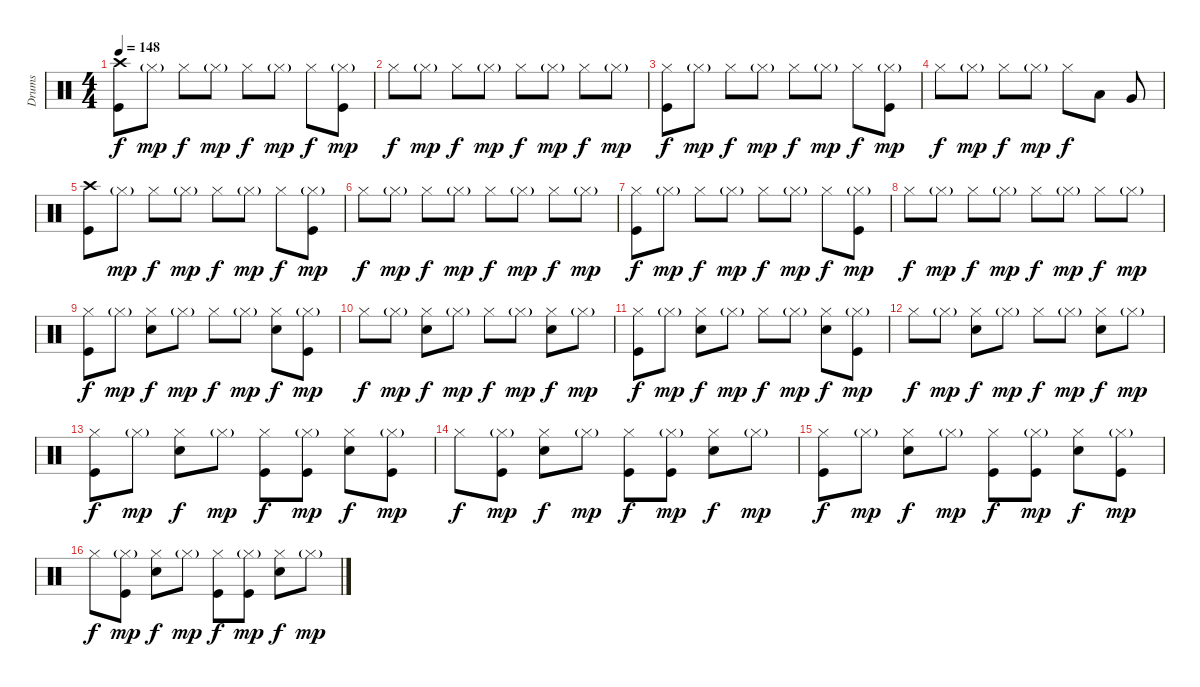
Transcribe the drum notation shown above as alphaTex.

\track ("Drums" "Drums") {instrument percussion}
\staff {score}
\articulation defaults
\ts (4 4)
\tempo 148
\clef neutral
\ks c
("Crash high (hit)" "Kick (hit)").8{dy f} "Hi-Hat (closed)"{g}.8{dy mp} "Hi-Hat (closed)".8{dy f} "Hi-Hat (closed)"{g}.8{dy mp} "Hi-Hat (closed)".8{dy f} "Hi-Hat (closed)"{g}.8{dy mp} "Hi-Hat (closed)".8{dy f} ("Hi-Hat (closed)"{g} "Kick (hit)").8{dy mp} |
"Hi-Hat (closed)".8{dy f} "Hi-Hat (closed)"{g}.8{dy mp} "Hi-Hat (closed)".8{dy f} "Hi-Hat (closed)"{g}.8{dy mp} "Hi-Hat (closed)".8{dy f} "Hi-Hat (closed)"{g}.8{dy mp} "Hi-Hat (closed)".8{dy f} "Hi-Hat (closed)"{g}.8{dy mp} |
("Hi-Hat (closed)" "Kick (hit)").8{dy f} "Hi-Hat (closed)"{g}.8{dy mp} "Hi-Hat (closed)".8{dy f} "Hi-Hat (closed)"{g}.8{dy mp} "Hi-Hat (closed)".8{dy f} "Hi-Hat (closed)"{g}.8{dy mp} "Hi-Hat (closed)".8{dy f} ("Hi-Hat (closed)"{g} "Kick (hit)").8{dy mp} |
"Hi-Hat (closed)".8{dy f} "Hi-Hat (closed)"{g}.8{dy mp} "Hi-Hat (closed)".8{dy f} "Hi-Hat (closed)"{g}.8{dy mp} "Hi-Hat (closed)".8{dy f} "Low Tom (hit)".8 "Very Low Tom (hit)".8 |
("Crash high (hit)" "Kick (hit)").8 "Hi-Hat (closed)"{g}.8{dy mp} "Hi-Hat (closed)".8{dy f} "Hi-Hat (closed)"{g}.8{dy mp} "Hi-Hat (closed)".8{dy f} "Hi-Hat (closed)"{g}.8{dy mp} "Hi-Hat (closed)".8{dy f} ("Hi-Hat (closed)"{g} "Kick (hit)").8{dy mp} |
"Hi-Hat (closed)".8{dy f} "Hi-Hat (closed)"{g}.8{dy mp} "Hi-Hat (closed)".8{dy f} "Hi-Hat (closed)"{g}.8{dy mp} "Hi-Hat (closed)".8{dy f} "Hi-Hat (closed)"{g}.8{dy mp} "Hi-Hat (closed)".8{dy f} "Hi-Hat (closed)"{g}.8{dy mp} |
("Hi-Hat (closed)" "Kick (hit)").8{dy f} "Hi-Hat (closed)"{g}.8{dy mp} "Hi-Hat (closed)".8{dy f} "Hi-Hat (closed)"{g}.8{dy mp} "Hi-Hat (closed)".8{dy f} "Hi-Hat (closed)"{g}.8{dy mp} "Hi-Hat (closed)".8{dy f} ("Hi-Hat (closed)"{g} "Kick (hit)").8{dy mp} |
"Hi-Hat (closed)".8{dy f} "Hi-Hat (closed)"{g}.8{dy mp} "Hi-Hat (closed)".8{dy f} "Hi-Hat (closed)"{g}.8{dy mp} "Hi-Hat (closed)".8{dy f} "Hi-Hat (closed)"{g}.8{dy mp} "Hi-Hat (closed)".8{dy f} "Hi-Hat (closed)"{g}.8{dy mp} |
("Hi-Hat (closed)" "Kick (hit)").8{dy f} "Hi-Hat (closed)"{g}.8{dy mp} ("Hi-Hat (closed)" "Electric Snare (hit)").8{dy f} "Hi-Hat (closed)"{g}.8{dy mp} "Hi-Hat (closed)".8{dy f} "Hi-Hat (closed)"{g}.8{dy mp} ("Hi-Hat (closed)" "Electric Snare (hit)").8{dy f} ("Hi-Hat (closed)"{g} "Kick (hit)").8{dy mp} |
"Hi-Hat (closed)".8{dy f} "Hi-Hat (closed)"{g}.8{dy mp} ("Hi-Hat (closed)" "Electric Snare (hit)").8{dy f} "Hi-Hat (closed)"{g}.8{dy mp} "Hi-Hat (closed)".8{dy f} "Hi-Hat (closed)"{g}.8{dy mp} ("Hi-Hat (closed)" "Electric Snare (hit)").8{dy f} "Hi-Hat (closed)"{g}.8{dy mp} |
("Hi-Hat (closed)" "Kick (hit)").8{dy f} "Hi-Hat (closed)"{g}.8{dy mp} ("Hi-Hat (closed)" "Electric Snare (hit)").8{dy f} "Hi-Hat (closed)"{g}.8{dy mp} "Hi-Hat (closed)".8{dy f} "Hi-Hat (closed)"{g}.8{dy mp} ("Hi-Hat (closed)" "Electric Snare (hit)").8{dy f} ("Hi-Hat (closed)"{g} "Kick (hit)").8{dy mp} |
"Hi-Hat (closed)".8{dy f} "Hi-Hat (closed)"{g}.8{dy mp} ("Hi-Hat (closed)" "Electric Snare (hit)").8{dy f} "Hi-Hat (closed)"{g}.8{dy mp} "Hi-Hat (closed)".8{dy f} "Hi-Hat (closed)"{g}.8{dy mp} ("Hi-Hat (closed)" "Electric Snare (hit)").8{dy f} "Hi-Hat (closed)"{g}.8{dy mp} |
("Hi-Hat (closed)" "Kick (hit)").8{dy f} "Hi-Hat (closed)"{g}.8{dy mp} ("Hi-Hat (closed)" "Electric Snare (hit)").8{dy f} "Hi-Hat (closed)"{g}.8{dy mp} ("Hi-Hat (closed)" "Kick (hit)").8{dy f} ("Hi-Hat (closed)"{g} "Kick (hit)").8{dy mp} ("Hi-Hat (closed)" "Electric Snare (hit)").8{dy f} ("Hi-Hat (closed)"{g} "Kick (hit)").8{dy mp} |
"Hi-Hat (closed)".8{dy f} ("Hi-Hat (closed)"{g} "Kick (hit)").8{dy mp} ("Hi-Hat (closed)" "Electric Snare (hit)").8{dy f} "Hi-Hat (closed)"{g}.8{dy mp} ("Hi-Hat (closed)" "Kick (hit)").8{dy f} ("Hi-Hat (closed)"{g} "Kick (hit)").8{dy mp} ("Hi-Hat (closed)" "Electric Snare (hit)").8{dy f} "Hi-Hat (closed)"{g}.8{dy mp} |
("Hi-Hat (closed)" "Kick (hit)").8{dy f} "Hi-Hat (closed)"{g}.8{dy mp} ("Hi-Hat (closed)" "Electric Snare (hit)").8{dy f} "Hi-Hat (closed)"{g}.8{dy mp} ("Hi-Hat (closed)" "Kick (hit)").8{dy f} ("Hi-Hat (closed)"{g} "Kick (hit)").8{dy mp} ("Hi-Hat (closed)" "Electric Snare (hit)").8{dy f} ("Hi-Hat (closed)"{g} "Kick (hit)").8{dy mp} |
"Hi-Hat (closed)".8{dy f} ("Hi-Hat (closed)"{g} "Kick (hit)").8{dy mp} ("Hi-Hat (closed)" "Electric Snare (hit)").8{dy f} "Hi-Hat (closed)"{g}.8{dy mp} ("Hi-Hat (closed)" "Kick (hit)").8{dy f} ("Hi-Hat (closed)"{g} "Kick (hit)").8{dy mp} ("Hi-Hat (closed)" "Electric Snare (hit)").8{dy f} "Hi-Hat (closed)"{g}.8{dy mp}
